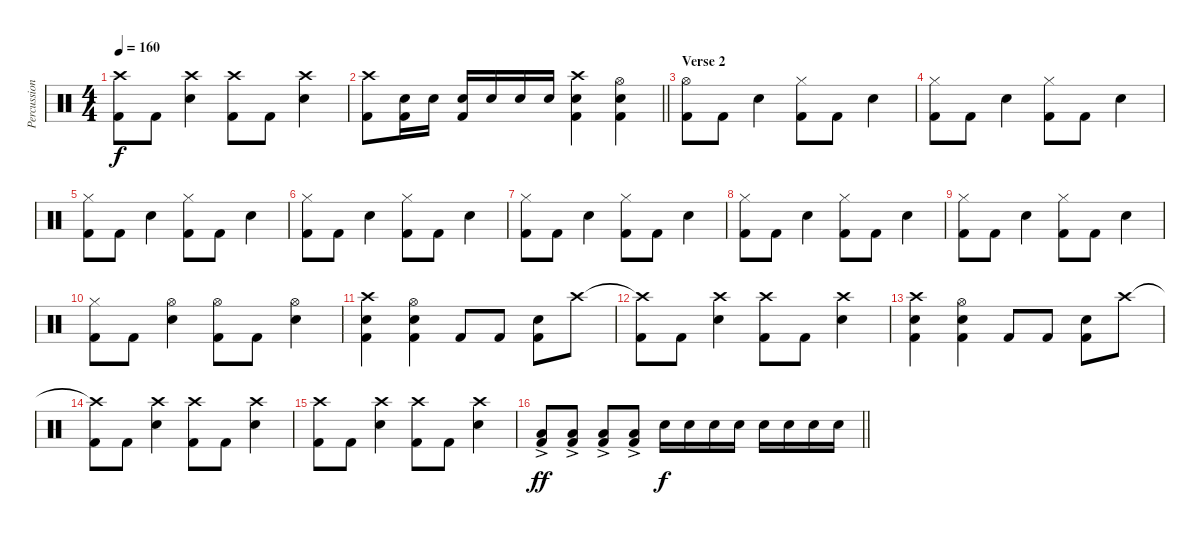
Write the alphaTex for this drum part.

\track ("Percussion" "Percussion") {instrument percussion}
\staff {score}
\articulation defaults
\ts (4 4)
\tempo 160
\clef neutral
\ks c
("Crash high (hit)" "Kick (hit) 2").8{dy f} "Kick (hit) 2".8 ("Crash high (hit)" "Snare (hit) 2").4 ("Crash high (hit)" "Kick (hit) 2").8 "Kick (hit) 2".8 ("Crash high (hit)" "Snare (hit) 2").4 |
\barLineRight lightlight
("Crash high (hit)" "Kick (hit) 2").8 ("Snare (hit) 2" "Kick (hit) 2").16 "Snare (hit) 2".16 ("Snare (hit) 2" "Kick (hit) 2").16 "Snare (hit) 2".16 "Snare (hit) 2".16 "Snare (hit) 2".16 ("Crash high (hit)" "Snare (hit) 2" "Kick (hit) 2").4 ("Hi-Hat (open)" "Snare (hit) 2" "Kick (hit) 2").4 |
\section ("" "Verse 2")
("Hi-Hat (open)" "Kick (hit) 2").8 "Kick (hit) 2".8 "Snare (hit) 2".4 ("Hi-Hat (closed)" "Kick (hit) 2").8 "Kick (hit) 2".8 "Snare (hit) 2".4 |
("Hi-Hat (closed)" "Kick (hit) 2").8 "Kick (hit) 2".8 "Snare (hit) 2".4 ("Hi-Hat (closed)" "Kick (hit) 2").8 "Kick (hit) 2".8 "Snare (hit) 2".4 |
("Hi-Hat (closed)" "Kick (hit) 2").8 "Kick (hit) 2".8 "Snare (hit) 2".4 ("Hi-Hat (closed)" "Kick (hit) 2").8 "Kick (hit) 2".8 "Snare (hit) 2".4 |
("Hi-Hat (closed)" "Kick (hit) 2").8 "Kick (hit) 2".8 "Snare (hit) 2".4 ("Hi-Hat (closed)" "Kick (hit) 2").8 "Kick (hit) 2".8 "Snare (hit) 2".4 |
("Hi-Hat (closed)" "Kick (hit) 2").8 "Kick (hit) 2".8 "Snare (hit) 2".4 ("Hi-Hat (closed)" "Kick (hit) 2").8 "Kick (hit) 2".8 "Snare (hit) 2".4 |
("Hi-Hat (closed)" "Kick (hit) 2").8 "Kick (hit) 2".8 "Snare (hit) 2".4 ("Hi-Hat (closed)" "Kick (hit) 2").8 "Kick (hit) 2".8 "Snare (hit) 2".4 |
("Hi-Hat (closed)" "Kick (hit) 2").8 "Kick (hit) 2".8 "Snare (hit) 2".4 ("Hi-Hat (closed)" "Kick (hit) 2").8 "Kick (hit) 2".8 "Snare (hit) 2".4 |
("Hi-Hat (closed)" "Kick (hit) 2").8 "Kick (hit) 2".8 ("Hi-Hat (open)" "Snare (hit) 2").4 ("Hi-Hat (open)" "Kick (hit) 2").8 "Kick (hit) 2".8 ("Hi-Hat (open)" "Snare (hit) 2").4 |
("Crash high (hit)" "Snare (hit) 2" "Kick (hit) 2").4 ("Hi-Hat (open)" "Snare (hit) 2" "Kick (hit) 2").4 "Kick (hit) 2".8 "Kick (hit) 2".8 ("Snare (hit) 2" "Kick (hit) 2").8 "Crash high (hit)".8 |
("Crash high (hit)"{t} "Kick (hit) 2").8 "Kick (hit) 2".8 ("Crash high (hit)" "Snare (hit) 2").4 ("Crash high (hit)" "Kick (hit) 2").8 "Kick (hit) 2".8 ("Crash high (hit)" "Snare (hit) 2").4 |
("Crash high (hit)" "Snare (hit) 2" "Kick (hit) 2").4 ("Hi-Hat (open)" "Snare (hit) 2" "Kick (hit) 2").4 "Kick (hit) 2".8 "Kick (hit) 2".8 ("Snare (hit) 2" "Kick (hit) 2").8 "Crash high (hit)".8 |
("Crash high (hit)"{t} "Kick (hit) 2").8 "Kick (hit) 2".8 ("Crash high (hit)" "Snare (hit) 2").4 ("Crash high (hit)" "Kick (hit) 2").8 "Kick (hit) 2".8 ("Crash high (hit)" "Snare (hit) 2").4 |
("Crash high (hit)" "Kick (hit) 2").8 "Kick (hit) 2".8 ("Crash high (hit)" "Snare (hit) 2").4 ("Crash high (hit)" "Kick (hit) 2").8 "Kick (hit) 2".8 ("Crash high (hit)" "Snare (hit) 2").4 |
\barLineRight lightlight
("Low Floor Tom (hit)"{ac} "Kick (hit) 2").8{dy ff} ("Low Floor Tom (hit)"{ac} "Kick (hit) 2").8 ("Low Floor Tom (hit)"{ac} "Kick (hit) 2").8 ("Low Floor Tom (hit)"{ac} "Kick (hit) 2").8 "Snare (hit) 2".16{dy f} "Snare (hit) 2".16 "Snare (hit) 2".16 "Snare (hit) 2".16 "Snare (hit) 2".16 "Snare (hit) 2".16 "Snare (hit) 2".16 "Snare (hit) 2".16
